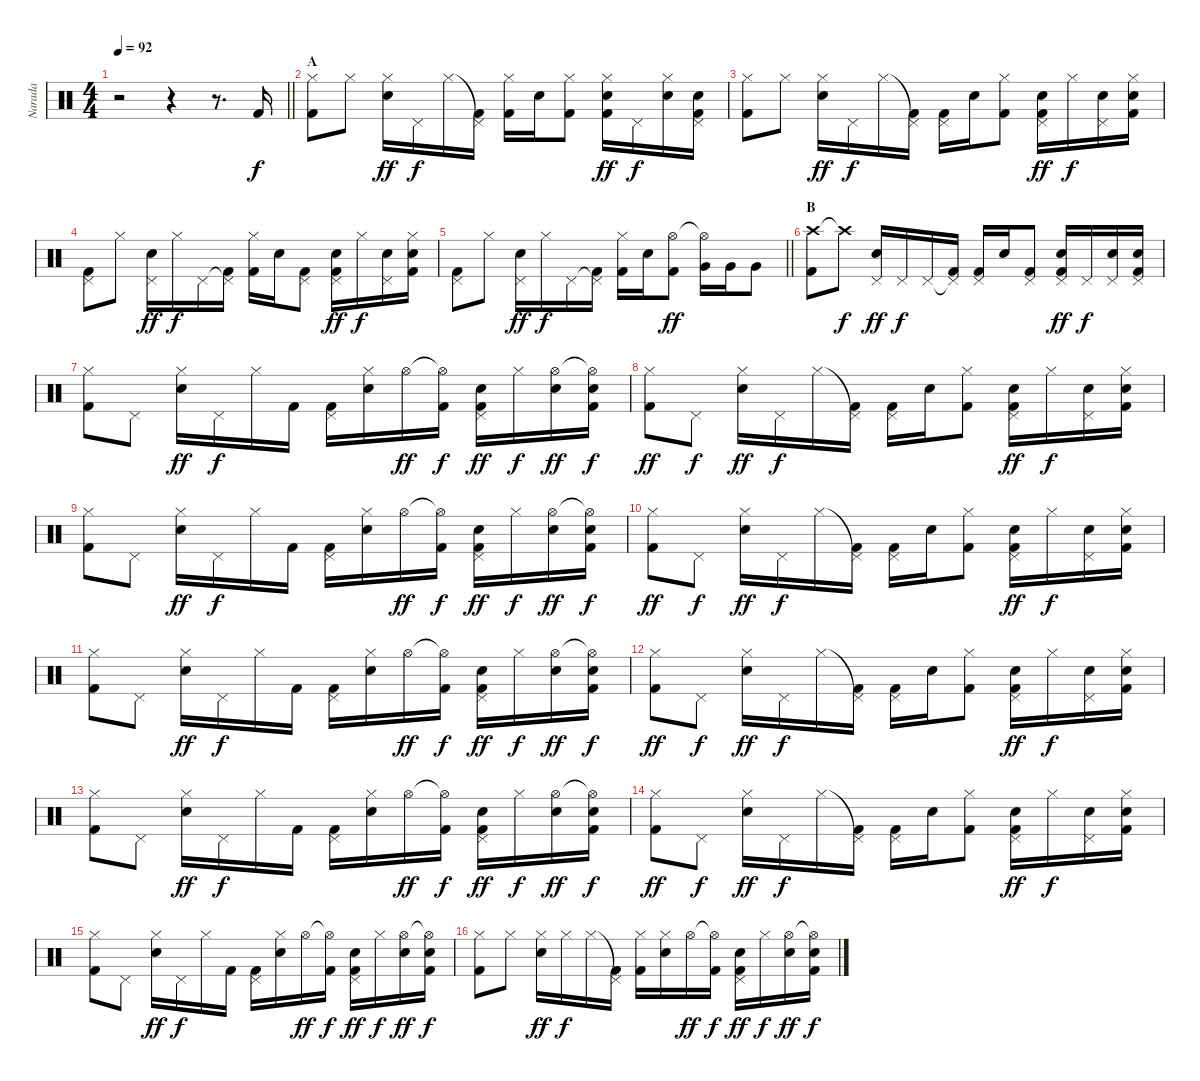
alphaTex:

\track ("Narada" "Narada") {instrument percussion}
\staff {score}
\articulation defaults
\ts (4 4)
\tempo 92
\clef neutral
\barLineRight lightlight
\ks c
r.2{dy f} r.4 r.8{d} "Kick (hit) 2".16 |
\section ("" "A")
("Hi-Hat (closed)" "Kick (hit) 2").8 "Hi-Hat (closed)".8 ("Hi-Hat (closed)" "Snare (hit) 2").16{dy ff} "Pedal Hi-Hat (hit)".16{dy f} "Hi-Hat (closed)".16 ("Pedal Hi-Hat (hit)"{t} "Kick (hit) 2").16 ("Hi-Hat (closed)" "Kick (hit) 2").16 "Snare (hit) 2".16 ("Hi-Hat (closed)" "Kick (hit) 2").8 ("Hi-Hat (closed)" "Snare (hit) 2" "Kick (hit) 2").16{dy ff} "Pedal Hi-Hat (hit)".16{dy f} ("Hi-Hat (closed)" "Snare (hit) 2").16 ("Pedal Hi-Hat (hit)" "Snare (hit) 2" "Kick (hit) 2").16 |
("Hi-Hat (closed)" "Kick (hit) 2").8 "Hi-Hat (closed)".8 ("Hi-Hat (closed)" "Snare (hit) 2").16{dy ff} "Pedal Hi-Hat (hit)".16{dy f} "Hi-Hat (closed)".16 ("Pedal Hi-Hat (hit)"{t} "Kick (hit) 2").16 ("Pedal Hi-Hat (hit)" "Kick (hit) 2").16 "Snare (hit) 2".16 ("Hi-Hat (closed)" "Kick (hit) 2").8 ("Pedal Hi-Hat (hit)" "Snare (hit) 2" "Kick (hit) 2").16{dy ff} "Hi-Hat (closed)".16{dy f} ("Pedal Hi-Hat (hit)" "Snare (hit) 2").16 ("Hi-Hat (closed)" "Snare (hit) 2" "Kick (hit) 2").16 |
("Pedal Hi-Hat (hit)" "Kick (hit) 2").8 "Hi-Hat (closed)".8 ("Pedal Hi-Hat (hit)" "Snare (hit) 2").16{dy ff} "Hi-Hat (closed)".16{dy f} "Pedal Hi-Hat (hit)".16 ("Pedal Hi-Hat (hit)"{t} "Kick (hit) 2").16 ("Hi-Hat (closed)" "Kick (hit) 2").16 "Snare (hit) 2".16 ("Pedal Hi-Hat (hit)" "Kick (hit) 2").8 ("Pedal Hi-Hat (hit)" "Snare (hit) 2" "Kick (hit) 2").16{dy ff} "Hi-Hat (closed)".16{dy f} ("Pedal Hi-Hat (hit)" "Snare (hit) 2").16 ("Hi-Hat (closed)" "Snare (hit) 2" "Kick (hit) 2").16 |
\barLineRight lightlight
("Pedal Hi-Hat (hit)" "Kick (hit) 2").8 "Hi-Hat (closed)".8 ("Pedal Hi-Hat (hit)" "Snare (hit) 2").16{dy ff} "Hi-Hat (closed)".16{dy f} "Pedal Hi-Hat (hit)".16 ("Pedal Hi-Hat (hit)"{t} "Kick (hit) 2").16 ("Hi-Hat (closed)" "Kick (hit) 2").16 "Snare (hit) 2".16 ("Hi-Hat (open)" "Kick (hit) 2").8{dy ff} ("Hi-Hat (open)"{t} "Very Low Tom (hit)").16 "Very Low Tom (hit)".16 "Very Low Tom (hit)".8 |
\section ("" "B")
("Crash high (hit)" "Kick (hit) 2").8 "Crash high (hit)"{t}.8{dy f} ("Pedal Hi-Hat (hit)" "Snare (hit) 2").16{dy ff} "Pedal Hi-Hat (hit)".16{dy f} "Pedal Hi-Hat (hit)".16 ("Pedal Hi-Hat (hit)"{t} "Kick (hit) 2").16 ("Pedal Hi-Hat (hit)" "Kick (hit) 2").16 "Snare (hit) 2".16 ("Pedal Hi-Hat (hit)" "Kick (hit) 2").8 ("Pedal Hi-Hat (hit)" "Snare (hit) 2" "Kick (hit) 2").16{dy ff} "Pedal Hi-Hat (hit)".16{dy f} ("Pedal Hi-Hat (hit)" "Snare (hit) 2").16 ("Pedal Hi-Hat (hit)" "Snare (hit) 2" "Kick (hit) 2").16 |
("Hi-Hat (closed)" "Kick (hit) 2").8 "Pedal Hi-Hat (hit)".8 ("Hi-Hat (closed)" "Snare (hit) 2").16{dy ff} "Pedal Hi-Hat (hit)".16{dy f} "Hi-Hat (closed)".16 "Kick (hit) 2".16 ("Pedal Hi-Hat (hit)" "Kick (hit) 2").16 ("Hi-Hat (closed)" "Snare (hit) 2").16 "Hi-Hat (open)".16{dy ff} ("Hi-Hat (open)"{t} "Kick (hit) 2").16{dy f} ("Pedal Hi-Hat (hit)" "Snare (hit) 2" "Kick (hit) 2").16{dy ff} "Hi-Hat (closed)".16{dy f} ("Hi-Hat (open)" "Snare (hit) 2").16{dy ff} ("Hi-Hat (open)"{t} "Snare (hit) 2" "Kick (hit) 2").16{dy f} |
("Hi-Hat (closed)" "Kick (hit) 2").8{dy ff} "Pedal Hi-Hat (hit)".8{dy f} ("Hi-Hat (closed)" "Snare (hit) 2").16{dy ff} "Pedal Hi-Hat (hit)".16{dy f} "Hi-Hat (closed)".16 ("Pedal Hi-Hat (hit)"{t} "Kick (hit) 2").16 ("Pedal Hi-Hat (hit)" "Kick (hit) 2").16 "Snare (hit) 2".16 ("Hi-Hat (closed)" "Kick (hit) 2").8 ("Pedal Hi-Hat (hit)" "Snare (hit) 2" "Kick (hit) 2").16{dy ff} "Hi-Hat (closed)".16{dy f} ("Pedal Hi-Hat (hit)" "Snare (hit) 2").16 ("Hi-Hat (closed)" "Snare (hit) 2" "Kick (hit) 2").16 |
("Hi-Hat (closed)" "Kick (hit) 2").8 "Pedal Hi-Hat (hit)".8 ("Hi-Hat (closed)" "Snare (hit) 2").16{dy ff} "Pedal Hi-Hat (hit)".16{dy f} "Hi-Hat (closed)".16 "Kick (hit) 2".16 ("Pedal Hi-Hat (hit)" "Kick (hit) 2").16 ("Hi-Hat (closed)" "Snare (hit) 2").16 "Hi-Hat (open)".16{dy ff} ("Hi-Hat (open)"{t} "Kick (hit) 2").16{dy f} ("Pedal Hi-Hat (hit)" "Snare (hit) 2" "Kick (hit) 2").16{dy ff} "Hi-Hat (closed)".16{dy f} ("Hi-Hat (open)" "Snare (hit) 2").16{dy ff} ("Hi-Hat (open)"{t} "Snare (hit) 2" "Kick (hit) 2").16{dy f} |
("Hi-Hat (closed)" "Kick (hit) 2").8{dy ff} "Pedal Hi-Hat (hit)".8{dy f} ("Hi-Hat (closed)" "Snare (hit) 2").16{dy ff} "Pedal Hi-Hat (hit)".16{dy f} "Hi-Hat (closed)".16 ("Pedal Hi-Hat (hit)"{t} "Kick (hit) 2").16 ("Pedal Hi-Hat (hit)" "Kick (hit) 2").16 "Snare (hit) 2".16 ("Hi-Hat (closed)" "Kick (hit) 2").8 ("Pedal Hi-Hat (hit)" "Snare (hit) 2" "Kick (hit) 2").16{dy ff} "Hi-Hat (closed)".16{dy f} ("Pedal Hi-Hat (hit)" "Snare (hit) 2").16 ("Hi-Hat (closed)" "Snare (hit) 2" "Kick (hit) 2").16 |
("Hi-Hat (closed)" "Kick (hit) 2").8 "Pedal Hi-Hat (hit)".8 ("Hi-Hat (closed)" "Snare (hit) 2").16{dy ff} "Pedal Hi-Hat (hit)".16{dy f} "Hi-Hat (closed)".16 "Kick (hit) 2".16 ("Pedal Hi-Hat (hit)" "Kick (hit) 2").16 ("Hi-Hat (closed)" "Snare (hit) 2").16 "Hi-Hat (open)".16{dy ff} ("Hi-Hat (open)"{t} "Kick (hit) 2").16{dy f} ("Pedal Hi-Hat (hit)" "Snare (hit) 2" "Kick (hit) 2").16{dy ff} "Hi-Hat (closed)".16{dy f} ("Hi-Hat (open)" "Snare (hit) 2").16{dy ff} ("Hi-Hat (open)"{t} "Snare (hit) 2" "Kick (hit) 2").16{dy f} |
("Hi-Hat (closed)" "Kick (hit) 2").8{dy ff} "Pedal Hi-Hat (hit)".8{dy f} ("Hi-Hat (closed)" "Snare (hit) 2").16{dy ff} "Pedal Hi-Hat (hit)".16{dy f} "Hi-Hat (closed)".16 ("Pedal Hi-Hat (hit)"{t} "Kick (hit) 2").16 ("Pedal Hi-Hat (hit)" "Kick (hit) 2").16 "Snare (hit) 2".16 ("Hi-Hat (closed)" "Kick (hit) 2").8 ("Pedal Hi-Hat (hit)" "Snare (hit) 2" "Kick (hit) 2").16{dy ff} "Hi-Hat (closed)".16{dy f} ("Pedal Hi-Hat (hit)" "Snare (hit) 2").16 ("Hi-Hat (closed)" "Snare (hit) 2" "Kick (hit) 2").16 |
("Hi-Hat (closed)" "Kick (hit) 2").8 "Pedal Hi-Hat (hit)".8 ("Hi-Hat (closed)" "Snare (hit) 2").16{dy ff} "Pedal Hi-Hat (hit)".16{dy f} "Hi-Hat (closed)".16 "Kick (hit) 2".16 ("Pedal Hi-Hat (hit)" "Kick (hit) 2").16 ("Hi-Hat (closed)" "Snare (hit) 2").16 "Hi-Hat (open)".16{dy ff} ("Hi-Hat (open)"{t} "Kick (hit) 2").16{dy f} ("Pedal Hi-Hat (hit)" "Snare (hit) 2" "Kick (hit) 2").16{dy ff} "Hi-Hat (closed)".16{dy f} ("Hi-Hat (open)" "Snare (hit) 2").16{dy ff} ("Hi-Hat (open)"{t} "Snare (hit) 2" "Kick (hit) 2").16{dy f} |
("Hi-Hat (closed)" "Kick (hit) 2").8{dy ff} "Pedal Hi-Hat (hit)".8{dy f} ("Hi-Hat (closed)" "Snare (hit) 2").16{dy ff} "Pedal Hi-Hat (hit)".16{dy f} "Hi-Hat (closed)".16 ("Pedal Hi-Hat (hit)"{t} "Kick (hit) 2").16 ("Pedal Hi-Hat (hit)" "Kick (hit) 2").16 "Snare (hit) 2".16 ("Hi-Hat (closed)" "Kick (hit) 2").8 ("Pedal Hi-Hat (hit)" "Snare (hit) 2" "Kick (hit) 2").16{dy ff} "Hi-Hat (closed)".16{dy f} ("Pedal Hi-Hat (hit)" "Snare (hit) 2").16 ("Hi-Hat (closed)" "Snare (hit) 2" "Kick (hit) 2").16 |
("Hi-Hat (closed)" "Kick (hit) 2").8 "Pedal Hi-Hat (hit)".8 ("Hi-Hat (closed)" "Snare (hit) 2").16{dy ff} "Pedal Hi-Hat (hit)".16{dy f} "Hi-Hat (closed)".16 "Kick (hit) 2".16 ("Pedal Hi-Hat (hit)" "Kick (hit) 2").16 ("Hi-Hat (closed)" "Snare (hit) 2").16 "Hi-Hat (open)".16{dy ff} ("Hi-Hat (open)"{t} "Kick (hit) 2").16{dy f} ("Pedal Hi-Hat (hit)" "Snare (hit) 2" "Kick (hit) 2").16{dy ff} "Hi-Hat (closed)".16{dy f} ("Hi-Hat (open)" "Snare (hit) 2").16{dy ff} ("Hi-Hat (open)"{t} "Snare (hit) 2" "Kick (hit) 2").16{dy f} |
("Hi-Hat (closed)" "Kick (hit) 2").8 "Hi-Hat (closed)".8 ("Hi-Hat (closed)" "Snare (hit) 2").16{dy ff} "Hi-Hat (closed)".16{dy f} "Hi-Hat (closed)".16 ("Pedal Hi-Hat (hit)"{t} "Kick (hit) 2").16 ("Hi-Hat (closed)" "Kick (hit) 2").16 ("Hi-Hat (closed)" "Snare (hit) 2").16 "Hi-Hat (open)".16{dy ff} ("Hi-Hat (open)"{t} "Kick (hit) 2").16{dy f} ("Pedal Hi-Hat (hit)" "Snare (hit) 2" "Kick (hit) 2").16{dy ff} "Hi-Hat (closed)".16{dy f} ("Hi-Hat (open)" "Snare (hit) 2").16{dy ff} ("Hi-Hat (open)"{t} "Snare (hit) 2" "Kick (hit) 2").16{dy f}
